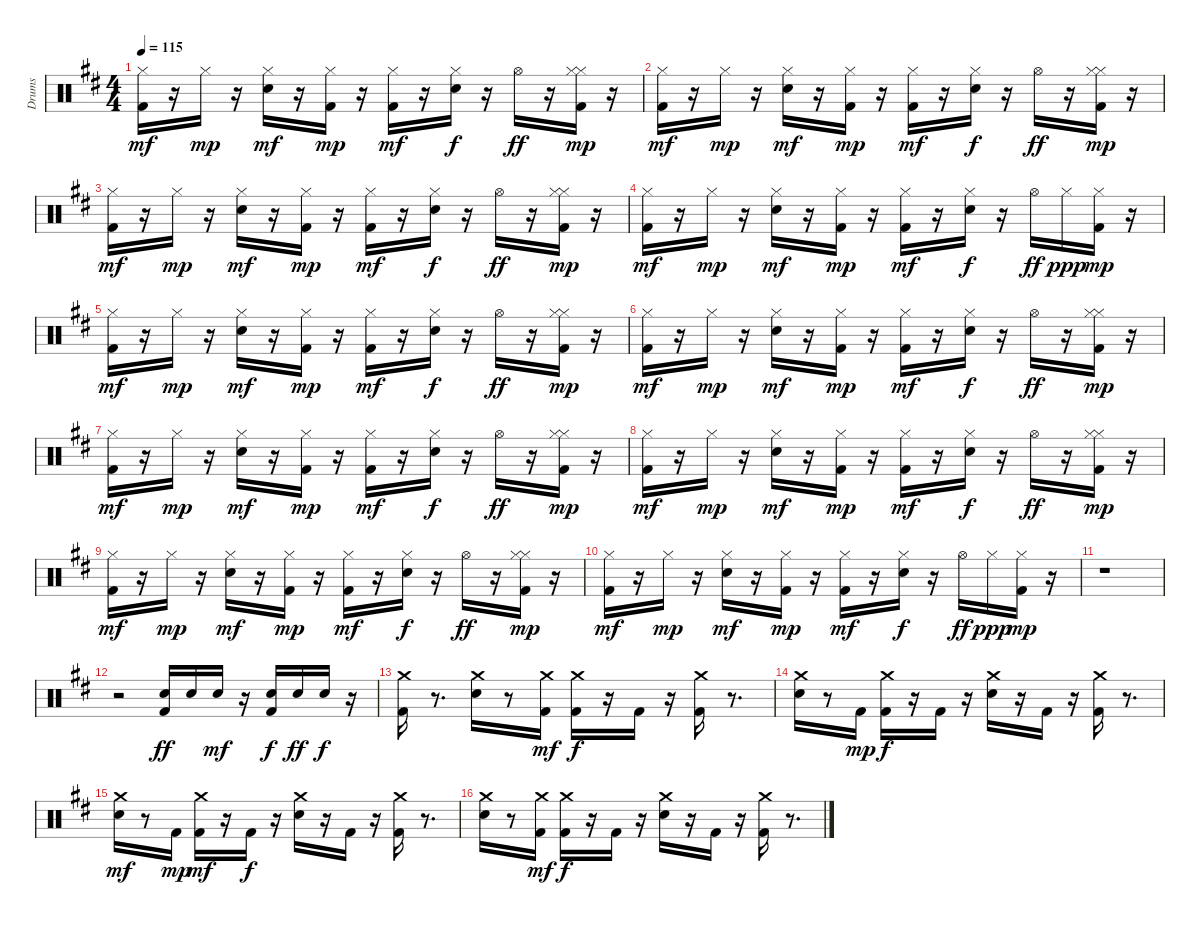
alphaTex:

\track ("Drums" "Drums") {instrument percussion}
\staff {score}
\articulation defaults
\ts (4 4)
\tempo 115
\clef neutral
\ks d
("Kick (hit) 2" "Hi-Hat (closed)").16{dy mf} r.16 "Hi-Hat (closed)".16{dy mp} r.16 ("Hi-Hat (closed)" "Snare (hit) 2").16{dy mf} r.16 ("Kick (hit) 2" "Hi-Hat (closed)").16{dy mp} r.16 ("Kick (hit) 2" "Hi-Hat (closed)").16{dy mf} r.16 ("Hi-Hat (closed)" "Snare (hit) 2").16{dy f} r.16 "Hi-Hat (open)".16{dy ff} r.16 ("Hi-Hat (closed)" "Kick (hit) 2" "Hi-Hat (closed)").16{dy mp} r.16 |
("Kick (hit) 2" "Hi-Hat (closed)").16{dy mf} r.16 "Hi-Hat (closed)".16{dy mp} r.16 ("Hi-Hat (closed)" "Snare (hit) 2").16{dy mf} r.16 ("Kick (hit) 2" "Hi-Hat (closed)").16{dy mp} r.16 ("Kick (hit) 2" "Hi-Hat (closed)").16{dy mf} r.16 ("Hi-Hat (closed)" "Snare (hit) 2").16{dy f} r.16 "Hi-Hat (open)".16{dy ff} r.16 ("Hi-Hat (closed)" "Kick (hit) 2" "Hi-Hat (closed)").16{dy mp} r.16 |
("Kick (hit) 2" "Hi-Hat (closed)").16{dy mf} r.16 "Hi-Hat (closed)".16{dy mp} r.16 ("Hi-Hat (closed)" "Snare (hit) 2").16{dy mf} r.16 ("Kick (hit) 2" "Hi-Hat (closed)").16{dy mp} r.16 ("Kick (hit) 2" "Hi-Hat (closed)").16{dy mf} r.16 ("Hi-Hat (closed)" "Snare (hit) 2").16{dy f} r.16 "Hi-Hat (open)".16{dy ff} r.16 ("Hi-Hat (closed)" "Kick (hit) 2" "Hi-Hat (closed)").16{dy mp} r.16 |
("Kick (hit) 2" "Hi-Hat (closed)").16{dy mf} r.16 "Hi-Hat (closed)".16{dy mp} r.16 ("Hi-Hat (closed)" "Snare (hit) 2").16{dy mf} r.16 ("Kick (hit) 2" "Hi-Hat (closed)").16{dy mp} r.16 ("Kick (hit) 2" "Hi-Hat (closed)").16{dy mf} r.16 ("Hi-Hat (closed)" "Snare (hit) 2").16{dy f} r.16 "Hi-Hat (open)".16{dy ff} "Hi-Hat (closed)".16{dy ppp} ("Kick (hit) 2" "Hi-Hat (closed)").16{dy mp} r.16 |
("Kick (hit) 2" "Hi-Hat (closed)").16{dy mf} r.16 "Hi-Hat (closed)".16{dy mp} r.16 ("Hi-Hat (closed)" "Snare (hit) 2").16{dy mf} r.16 ("Kick (hit) 2" "Hi-Hat (closed)").16{dy mp} r.16 ("Kick (hit) 2" "Hi-Hat (closed)").16{dy mf} r.16 ("Hi-Hat (closed)" "Snare (hit) 2").16{dy f} r.16 "Hi-Hat (open)".16{dy ff} r.16 ("Hi-Hat (closed)" "Kick (hit) 2" "Hi-Hat (closed)").16{dy mp} r.16 |
("Kick (hit) 2" "Hi-Hat (closed)").16{dy mf} r.16 "Hi-Hat (closed)".16{dy mp} r.16 ("Hi-Hat (closed)" "Snare (hit) 2").16{dy mf} r.16 ("Kick (hit) 2" "Hi-Hat (closed)").16{dy mp} r.16 ("Kick (hit) 2" "Hi-Hat (closed)").16{dy mf} r.16 ("Snare (hit) 2" "Hi-Hat (closed)").16{dy f} r.16 "Hi-Hat (open)".16{dy ff} r.16 ("Hi-Hat (closed)" "Kick (hit) 2" "Hi-Hat (closed)").16{dy mp} r.16 |
("Kick (hit) 2" "Hi-Hat (closed)").16{dy mf} r.16 "Hi-Hat (closed)".16{dy mp} r.16 ("Hi-Hat (closed)" "Snare (hit) 2").16{dy mf} r.16 ("Kick (hit) 2" "Hi-Hat (closed)").16{dy mp} r.16 ("Kick (hit) 2" "Hi-Hat (closed)").16{dy mf} r.16 ("Hi-Hat (closed)" "Snare (hit) 2").16{dy f} r.16 "Hi-Hat (open)".16{dy ff} r.16 ("Hi-Hat (closed)" "Kick (hit) 2" "Hi-Hat (closed)").16{dy mp} r.16 |
("Kick (hit) 2" "Hi-Hat (closed)").16{dy mf} r.16 "Hi-Hat (closed)".16{dy mp} r.16 ("Hi-Hat (closed)" "Snare (hit) 2").16{dy mf} r.16 ("Kick (hit) 2" "Hi-Hat (closed)").16{dy mp} r.16 ("Kick (hit) 2" "Hi-Hat (closed)").16{dy mf} r.16 ("Hi-Hat (closed)" "Snare (hit) 2").16{dy f} r.16 "Hi-Hat (open)".16{dy ff} r.16 ("Hi-Hat (closed)" "Kick (hit) 2" "Hi-Hat (closed)").16{dy mp} r.16 |
("Kick (hit) 2" "Hi-Hat (closed)").16{dy mf} r.16 "Hi-Hat (closed)".16{dy mp} r.16 ("Hi-Hat (closed)" "Snare (hit) 2").16{dy mf} r.16 ("Kick (hit) 2" "Hi-Hat (closed)").16{dy mp} r.16 ("Kick (hit) 2" "Hi-Hat (closed)").16{dy mf} r.16 ("Hi-Hat (closed)" "Snare (hit) 2").16{dy f} r.16 "Hi-Hat (open)".16{dy ff} r.16 ("Hi-Hat (closed)" "Kick (hit) 2" "Hi-Hat (closed)").16{dy mp} r.16 |
("Kick (hit) 2" "Hi-Hat (closed)").16{dy mf} r.16 "Hi-Hat (closed)".16{dy mp} r.16 ("Hi-Hat (closed)" "Snare (hit) 2").16{dy mf} r.16 ("Kick (hit) 2" "Hi-Hat (closed)").16{dy mp} r.16 ("Kick (hit) 2" "Hi-Hat (closed)").16{dy mf} r.16 ("Hi-Hat (closed)" "Snare (hit) 2").16{dy f} r.16 "Hi-Hat (open)".16{dy ff} "Hi-Hat (closed)".16{dy ppp} ("Kick (hit) 2" "Hi-Hat (closed)").16{dy mp} r.16 |
r.1 |
r.2 ("Kick (hit) 2" "Snare (hit) 2").16{dy ff} "Snare (hit) 2".16 "Snare (hit) 2".16{dy mf} r.16 ("Kick (hit) 2" "Snare (hit) 2").16{dy f} "Snare (hit) 2".16{dy ff} "Snare (hit) 2".16{dy f} r.16 |
("Kick (hit) 2" "Crash medium (hit)").16 r.8{d} ("Crash medium (hit)" "Snare (hit) 2").16 r.8 ("Kick (hit) 2" "Crash medium (hit)").16{dy mf} ("Kick (hit) 2" "Crash medium (hit)").16{dy f} r.16 "Kick (hit) 2".16 r.16 ("Kick (hit) 2" "Crash medium (hit)").16 r.8{d} |
("Crash medium (hit)" "Snare (hit) 2").16 r.8 "Kick (hit) 2".16{dy mp} ("Kick (hit) 2" "Crash medium (hit)").16{dy f} r.16 "Kick (hit) 2".16 r.16 ("Crash medium (hit)" "Snare (hit) 2").16 r.16 "Kick (hit) 2".16 r.16 ("Kick (hit) 2" "Crash medium (hit)").16 r.8{d} |
("Crash medium (hit)" "Snare (hit) 2").16{dy mf} r.8 "Kick (hit) 2".16{dy mp} ("Kick (hit) 2" "Crash medium (hit)").16{dy mf} r.16 "Kick (hit) 2".16{dy f} r.16 ("Crash medium (hit)" "Snare (hit) 2").16 r.16 "Kick (hit) 2".16 r.16 ("Kick (hit) 2" "Crash medium (hit)").16 r.8{d} |
("Crash medium (hit)" "Snare (hit) 2").16 r.8 ("Kick (hit) 2" "Crash medium (hit)").16{dy mf} ("Kick (hit) 2" "Crash medium (hit)").16{dy f} r.16 "Kick (hit) 2".16 r.16 ("Crash medium (hit)" "Snare (hit) 2").16 r.16 "Kick (hit) 2".16 r.16 ("Kick (hit) 2" "Crash medium (hit)").16 r.8{d}
